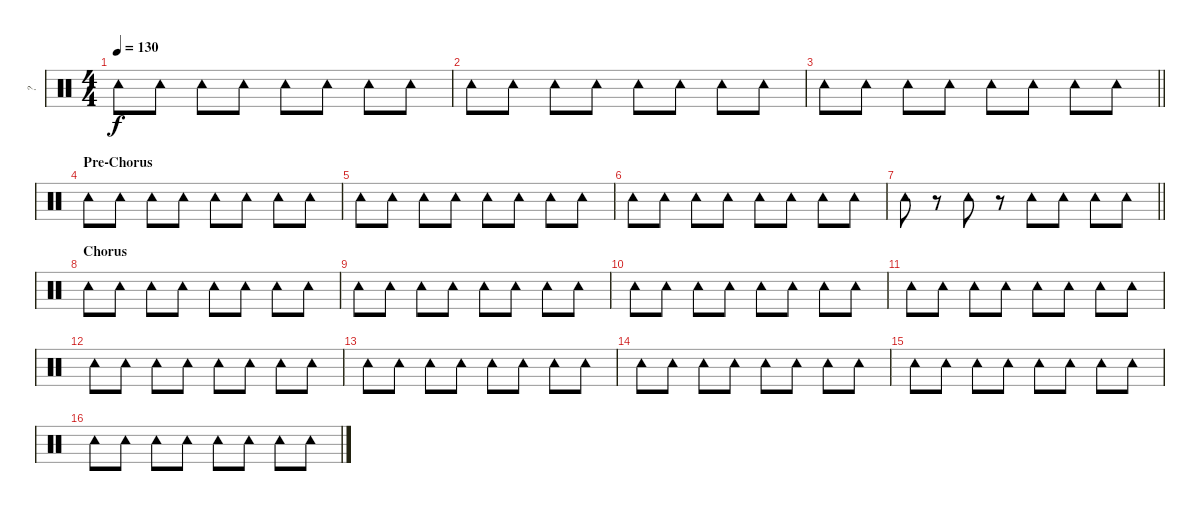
\track ("?" "?") {instrument percussion}
\staff {score}
\articulation defaults
\ts (4 4)
\tempo 130
\clef neutral
\ks c "Tambourine (hit)".8{dy f} "Tambourine (hit)".8 "Tambourine (hit)".8 "Tambourine (hit)".8 "Tambourine (hit)".8 "Tambourine (hit)".8 "Tambourine (hit)".8 "Tambourine (hit)".8
|
"Tambourine (hit)".8 "Tambourine (hit)".8 "Tambourine (hit)".8 "Tambourine (hit)".8 "Tambourine (hit)".8 "Tambourine (hit)".8 "Tambourine (hit)".8 "Tambourine (hit)".8 |
\barLineRight lightlight "Tambourine (hit)".8 "Tambourine (hit)".8 "Tambourine (hit)".8 "Tambourine (hit)".8 "Tambourine (hit)".8 "Tambourine (hit)".8 "Tambourine (hit)".8 "Tambourine (hit)".8
|
\section ("" "Pre-Chorus")
"Tambourine (hit)".8 "Tambourine (hit)".8 "Tambourine (hit)".8 "Tambourine (hit)".8 "Tambourine (hit)".8 "Tambourine (hit)".8 "Tambourine (hit)".8 "Tambourine (hit)".8 |
"Tambourine (hit)".8 "Tambourine (hit)".8 "Tambourine (hit)".8 "Tambourine (hit)".8 "Tambourine (hit)".8 "Tambourine (hit)".8 "Tambourine (hit)".8 "Tambourine (hit)".8 |
"Tambourine (hit)".8 "Tambourine (hit)".8 "Tambourine (hit)".8 "Tambourine (hit)".8 "Tambourine (hit)".8 "Tambourine (hit)".8 "Tambourine (hit)".8 "Tambourine (hit)".8 |
\barLineRight lightlight "Tambourine (hit)".8
r.8 "Tambourine (hit)".8 r.8 "Tambourine (hit)".8 "Tambourine (hit)".8 "Tambourine (hit)".8 "Tambourine (hit)".8 |
\section ("" "Chorus")
"Tambourine (hit)".8 "Tambourine (hit)".8 "Tambourine (hit)".8 "Tambourine (hit)".8 "Tambourine (hit)".8 "Tambourine (hit)".8 "Tambourine (hit)".8 "Tambourine (hit)".8 |
"Tambourine (hit)".8 "Tambourine (hit)".8 "Tambourine (hit)".8 "Tambourine (hit)".8 "Tambourine (hit)".8 "Tambourine (hit)".8 "Tambourine (hit)".8 "Tambourine (hit)".8 |
"Tambourine (hit)".8 "Tambourine (hit)".8 "Tambourine (hit)".8 "Tambourine (hit)".8 "Tambourine (hit)".8 "Tambourine (hit)".8 "Tambourine (hit)".8 "Tambourine (hit)".8 |
"Tambourine (hit)".8 "Tambourine (hit)".8 "Tambourine (hit)".8 "Tambourine (hit)".8 "Tambourine (hit)".8 "Tambourine (hit)".8 "Tambourine (hit)".8 "Tambourine (hit)".8 |
"Tambourine (hit)".8 "Tambourine (hit)".8 "Tambourine (hit)".8 "Tambourine (hit)".8 "Tambourine (hit)".8 "Tambourine (hit)".8 "Tambourine (hit)".8 "Tambourine (hit)".8 |
"Tambourine (hit)".8 "Tambourine (hit)".8 "Tambourine (hit)".8 "Tambourine (hit)".8 "Tambourine (hit)".8 "Tambourine (hit)".8 "Tambourine (hit)".8 "Tambourine (hit)".8 |
"Tambourine (hit)".8 "Tambourine (hit)".8 "Tambourine (hit)".8 "Tambourine (hit)".8 "Tambourine (hit)".8 "Tambourine (hit)".8 "Tambourine (hit)".8 "Tambourine (hit)".8 |
"Tambourine (hit)".8 "Tambourine (hit)".8 "Tambourine (hit)".8 "Tambourine (hit)".8 "Tambourine (hit)".8 "Tambourine (hit)".8 "Tambourine (hit)".8 "Tambourine (hit)".8 |
"Tambourine (hit)".8 "Tambourine (hit)".8 "Tambourine (hit)".8 "Tambourine (hit)".8 "Tambourine (hit)".8 "Tambourine (hit)".8 "Tambourine (hit)".8 "Tambourine (hit)".8
